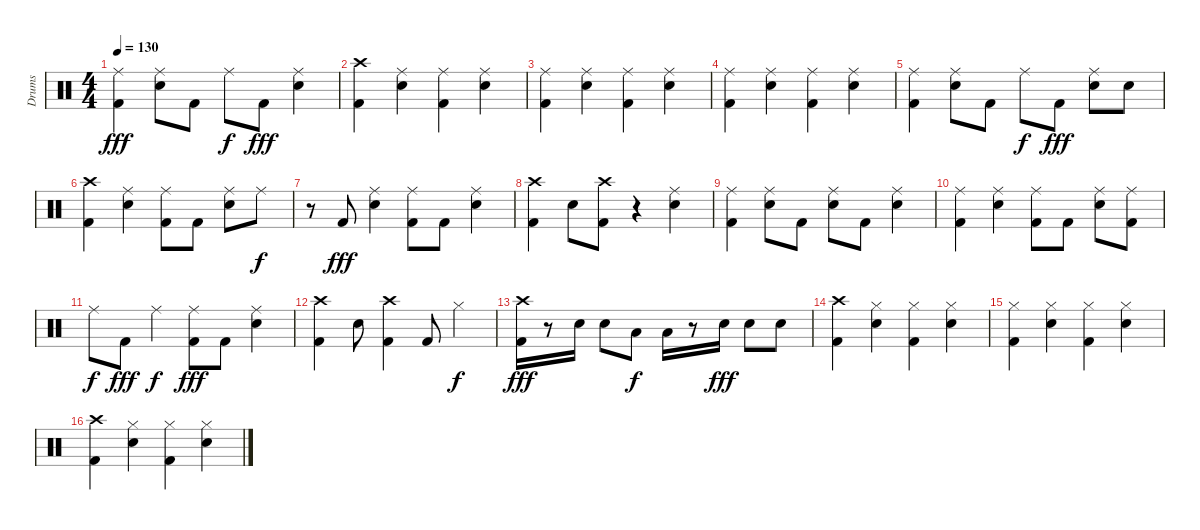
\track ("Drums" "Drums") {instrument percussion}
\staff {score}
\articulation defaults
\ts (4 4)
\tempo 130
\clef neutral
\ks c
("Kick (hit) 2" "Ride (middle)").4{dy fff} ("Ride (middle)" "Snare (hit) 2").8 "Kick (hit) 2".8 "Ride (middle)".8{dy f} "Kick (hit) 2".8{dy fff} ("Ride (middle)" "Snare (hit) 2").4 |
("Crash high (hit)" "Kick (hit) 2").4 ("Ride (middle)" "Snare (hit) 2").4 ("Kick (hit) 2" "Ride (middle)").4 ("Ride (middle)" "Snare (hit) 2").4 |
("Kick (hit) 2" "Ride (middle)").4 ("Ride (middle)" "Snare (hit) 2").4 ("Kick (hit) 2" "Ride (middle)").4 ("Ride (middle)" "Snare (hit) 2").4 |
("Kick (hit) 2" "Ride (middle)").4 ("Ride (middle)" "Snare (hit) 2").4 ("Kick (hit) 2" "Ride (middle)").4 ("Ride (middle)" "Snare (hit) 2").4 |
("Kick (hit) 2" "Ride (middle)").4 ("Ride (middle)" "Snare (hit) 2").8 "Kick (hit) 2".8 "Ride (middle)".8{dy f} "Kick (hit) 2".8{dy fff} ("Ride (middle)" "Snare (hit) 2").8 "Snare (hit) 2".8 |
("Crash high (hit)" "Kick (hit) 2").4 ("Ride (middle)" "Snare (hit) 2").4 ("Kick (hit) 2" "Ride (middle)").8 "Kick (hit) 2".8 ("Ride (middle)" "Snare (hit) 2").8 "Ride (middle)".8{dy f} |
r.8 "Kick (hit) 2".8{dy fff} ("Ride (middle)" "Snare (hit) 2").4 ("Kick (hit) 2" "Ride (middle)").8 "Kick (hit) 2".8 ("Ride (middle)" "Snare (hit) 2").4 |
("Crash high (hit)" "Kick (hit) 2").4 "Snare (hit) 2".8 ("Crash high (hit)" "Kick (hit) 2").8 r.4 ("Ride (middle)" "Snare (hit) 2").4 |
("Kick (hit) 2" "Ride (middle)").4 ("Ride (middle)" "Snare (hit) 2").8 "Kick (hit) 2".8 ("Ride (middle)" "Snare (hit) 2").8 "Kick (hit) 2".8 ("Ride (middle)" "Snare (hit) 2").4 |
("Kick (hit) 2" "Ride (middle)").4 ("Ride (middle)" "Snare (hit) 2").4 ("Kick (hit) 2" "Ride (middle)").8 "Kick (hit) 2".8 ("Ride (middle)" "Snare (hit) 2").8 ("Kick (hit) 2" "Ride (middle)").8 |
"Ride (middle)".8{dy f} "Kick (hit) 2".8{dy fff} "Ride (middle)".4{dy f} ("Kick (hit) 2" "Ride (middle)").8{dy fff} "Kick (hit) 2".8 ("Ride (middle)" "Snare (hit) 2").4 |
("Kick (hit) 2" "Crash high (hit)").4 "Snare (hit) 2".8 ("Kick (hit) 2" "Crash high (hit)").4 "Kick (hit) 2".8 "Hi-Hat (closed)".4{dy f} |
("Kick (hit) 2" "Crash high (hit)").16{dy fff} r.8 "Snare (hit) 2".16 "Snare (hit) 2".8 "Low Tom (hit)".8{dy f} "Low Tom (hit)".16 r.8 "Snare (hit) 2".16{dy fff} "Snare (hit) 2".8 "Snare (hit) 2".8 |
("Kick (hit) 2" "Crash high (hit)").4 ("Hi-Hat (closed)" "Snare (hit) 2").4 ("Kick (hit) 2" "Hi-Hat (closed)").4 ("Hi-Hat (closed)" "Snare (hit) 2").4 |
("Kick (hit) 2" "Hi-Hat (closed)").4 ("Hi-Hat (closed)" "Snare (hit) 2").4 ("Kick (hit) 2" "Hi-Hat (closed)").4 ("Hi-Hat (closed)" "Snare (hit) 2").4 |
("Kick (hit) 2" "Crash high (hit)").4 ("Hi-Hat (closed)" "Snare (hit) 2").4 ("Kick (hit) 2" "Hi-Hat (closed)").4 ("Hi-Hat (closed)" "Snare (hit) 2").4
